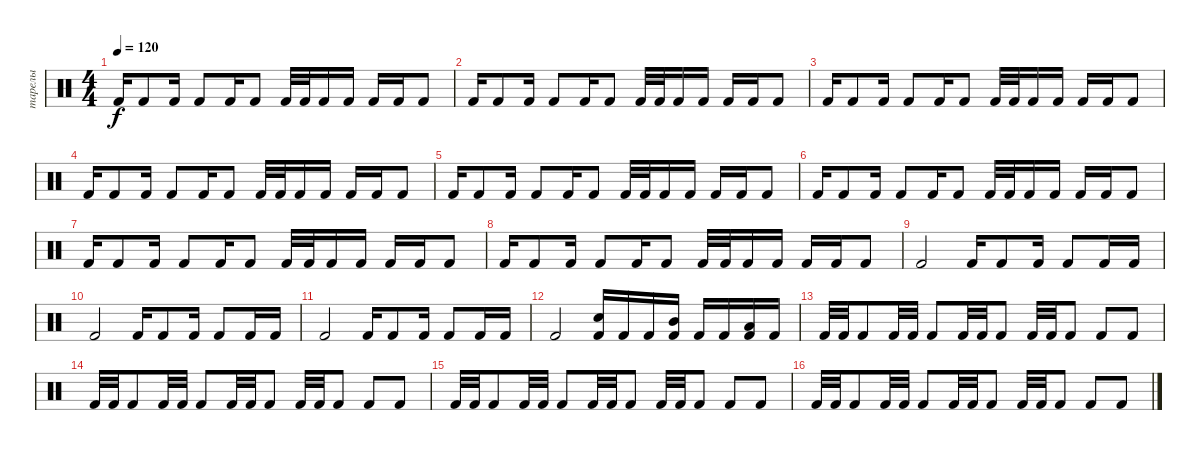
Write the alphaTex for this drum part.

\track ("тарелы" "тарелы") {instrument percussion}
\staff {score}
\articulation defaults
\ts (4 4)
\tempo 120
\clef neutral
\ks c "Kick (hit) 2".16{dy f} "Kick (hit) 2".8 "Kick (hit) 2".16 "Kick (hit) 2".8 "Kick (hit) 2".16 "Kick (hit) 2".8 "Kick (hit) 2".32 "Kick (hit) 2".32 "Kick (hit) 2".16 "Kick (hit) 2".16 "Kick (hit) 2".16 "Kick (hit) 2".16 "Kick (hit) 2".8
|
"Kick (hit) 2".16 "Kick (hit) 2".8 "Kick (hit) 2".16 "Kick (hit) 2".8 "Kick (hit) 2".16 "Kick (hit) 2".8 "Kick (hit) 2".32 "Kick (hit) 2".32 "Kick (hit) 2".16 "Kick (hit) 2".16 "Kick (hit) 2".16 "Kick (hit) 2".16 "Kick (hit) 2".8 |
"Kick (hit) 2".16 "Kick (hit) 2".8 "Kick (hit) 2".16 "Kick (hit) 2".8 "Kick (hit) 2".16 "Kick (hit) 2".8 "Kick (hit) 2".32 "Kick (hit) 2".32 "Kick (hit) 2".16 "Kick (hit) 2".16 "Kick (hit) 2".16 "Kick (hit) 2".16 "Kick (hit) 2".8 |
"Kick (hit) 2".16 "Kick (hit) 2".8 "Kick (hit) 2".16 "Kick (hit) 2".8 "Kick (hit) 2".16 "Kick (hit) 2".8 "Kick (hit) 2".32 "Kick (hit) 2".32 "Kick (hit) 2".16 "Kick (hit) 2".16 "Kick (hit) 2".16 "Kick (hit) 2".16 "Kick (hit) 2".8 |
"Kick (hit) 2".16 "Kick (hit) 2".8 "Kick (hit) 2".16 "Kick (hit) 2".8 "Kick (hit) 2".16 "Kick (hit) 2".8 "Kick (hit) 2".32 "Kick (hit) 2".32 "Kick (hit) 2".16 "Kick (hit) 2".16 "Kick (hit) 2".16 "Kick (hit) 2".16 "Kick (hit) 2".8 |
"Kick (hit) 2".16 "Kick (hit) 2".8 "Kick (hit) 2".16 "Kick (hit) 2".8 "Kick (hit) 2".16 "Kick (hit) 2".8 "Kick (hit) 2".32 "Kick (hit) 2".32 "Kick (hit) 2".16 "Kick (hit) 2".16 "Kick (hit) 2".16 "Kick (hit) 2".16 "Kick (hit) 2".8 |
"Kick (hit) 2".16 "Kick (hit) 2".8 "Kick (hit) 2".16 "Kick (hit) 2".8 "Kick (hit) 2".16 "Kick (hit) 2".8 "Kick (hit) 2".32 "Kick (hit) 2".32 "Kick (hit) 2".16 "Kick (hit) 2".16 "Kick (hit) 2".16 "Kick (hit) 2".16 "Kick (hit) 2".8 |
"Kick (hit) 2".16 "Kick (hit) 2".8 "Kick (hit) 2".16 "Kick (hit) 2".8 "Kick (hit) 2".16 "Kick (hit) 2".8 "Kick (hit) 2".32 "Kick (hit) 2".32 "Kick (hit) 2".16 "Kick (hit) 2".16 "Kick (hit) 2".16 "Kick (hit) 2".16 "Kick (hit) 2".8 |
"Kick (hit) 2".2 "Kick (hit) 2".16 "Kick (hit) 2".8 "Kick (hit) 2".16 "Kick (hit) 2".8 "Kick (hit) 2".16 "Kick (hit) 2".16 |
"Kick (hit) 2".2 "Kick (hit) 2".16 "Kick (hit) 2".8 "Kick (hit) 2".16 "Kick (hit) 2".8 "Kick (hit) 2".16 "Kick (hit) 2".16 |
"Kick (hit) 2".2 "Kick (hit) 2".16 "Kick (hit) 2".8 "Kick (hit) 2".16 "Kick (hit) 2".8 "Kick (hit) 2".16 "Kick (hit) 2".16 |
"Kick (hit) 2".2 ("Snare (hit) 2" "Kick (hit) 2").16 "Kick (hit) 2".16 "Kick (hit) 2".16 ("Mid Tom (hit)" "Kick (hit) 2").16 "Kick (hit) 2".16 "Kick (hit) 2".16 ("Low Floor Tom (hit)" "Kick (hit) 2").16 "Kick (hit) 2".16 |
"Kick (hit) 2".32 "Kick (hit) 2".32 "Kick (hit) 2".8 "Kick (hit) 2".32 "Kick (hit) 2".32 "Kick (hit) 2".8 "Kick (hit) 2".32 "Kick (hit) 2".32 "Kick (hit) 2".8 "Kick (hit) 2".32 "Kick (hit) 2".32 "Kick (hit) 2".8 "Kick (hit) 2".8 "Kick (hit) 2".8 |
"Kick (hit) 2".32 "Kick (hit) 2".32 "Kick (hit) 2".8 "Kick (hit) 2".32 "Kick (hit) 2".32 "Kick (hit) 2".8 "Kick (hit) 2".32 "Kick (hit) 2".32 "Kick (hit) 2".8 "Kick (hit) 2".32 "Kick (hit) 2".32 "Kick (hit) 2".8 "Kick (hit) 2".8 "Kick (hit) 2".8 |
"Kick (hit) 2".32 "Kick (hit) 2".32 "Kick (hit) 2".8 "Kick (hit) 2".32 "Kick (hit) 2".32 "Kick (hit) 2".8 "Kick (hit) 2".32 "Kick (hit) 2".32 "Kick (hit) 2".8 "Kick (hit) 2".32 "Kick (hit) 2".32 "Kick (hit) 2".8 "Kick (hit) 2".8 "Kick (hit) 2".8 |
"Kick (hit) 2".32 "Kick (hit) 2".32 "Kick (hit) 2".8 "Kick (hit) 2".32 "Kick (hit) 2".32 "Kick (hit) 2".8 "Kick (hit) 2".32 "Kick (hit) 2".32 "Kick (hit) 2".8 "Kick (hit) 2".32 "Kick (hit) 2".32 "Kick (hit) 2".8 "Kick (hit) 2".8 "Kick (hit) 2".8
